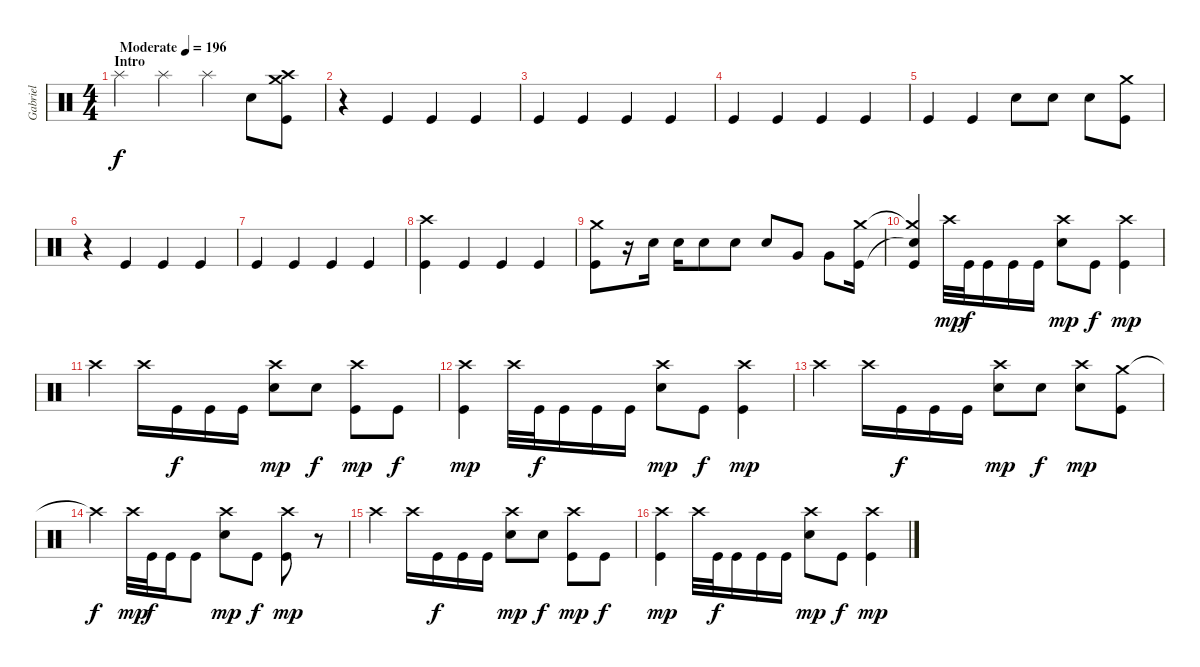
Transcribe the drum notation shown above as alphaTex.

\track ("Gabriel" "Gabriel") {instrument percussion}
\staff {score}
\articulation defaults
\ts (4 4)
\section ("" "Intro")
\tempo (196 "Moderate")
\clef neutral
\ks aminor "Splash (hit)".4{dy f} "Splash (hit)".4 "Splash (hit)".4 "Snare (hit) 2".8
("Crash medium (hit)" "Crash high (hit)" "Kick (hit)").8 |
r.4 "Kick (hit)".4 "Kick (hit)".4 "Kick (hit)".4 |
"Kick (hit)".4 "Kick (hit)".4 "Kick (hit)".4 "Kick (hit)".4 |
"Kick (hit)".4 "Kick (hit)".4 "Kick (hit)".4 "Kick (hit)".4 |
"Kick (hit)".4 "Kick (hit)".4 "Snare (hit) 2".8 "Snare (hit) 2".8 "Snare (hit) 2".8 ("Crash medium (hit)" "Kick (hit)").8 |
r.4 "Kick (hit)".4 "Kick (hit)".4 "Kick (hit)".4 |
"Kick (hit)".4 "Kick (hit)".4 "Kick (hit)".4 "Kick (hit)".4 |
("Crash high (hit)" "Kick (hit)").4 "Kick (hit)".4 "Kick (hit)".4 "Kick (hit)".4 |
("Crash medium (hit)" "Kick (hit)").8 r.16 "Snare (hit) 2".16 "Snare (hit) 2".16 "Snare (hit) 2".8 "Snare (hit) 2".8 "Snare (hit) 2".8 "Very Low Tom (hit)".8 "Very Low Tom (hit)".8 ("Crash medium (hit)" "Kick (hit)").16 |
("Crash medium (hit)"{t} "Snare (hit)"{t} "Kick (hit)").4 "Crash high (hit)".32{dy mp} "Kick (hit)".32{dy f} "Kick (hit)".16 "Kick (hit)".16 "Kick (hit)".16 ("Crash high (hit)" "Snare (hit) 2").8{dy mp} "Kick (hit)".8{dy f} ("Crash high (hit)" "Kick (hit)").4{dy mp} |
"Crash high (hit)".4 "Crash high (hit)".16 "Kick (hit)".16{dy f} "Kick (hit)".16 "Kick (hit)".16 ("Crash high (hit)" "Snare (hit) 2").8{dy mp} "Snare (hit) 2".8{dy f} ("Crash high (hit)" "Kick (hit)").8{dy mp} "Kick (hit)".8{dy f} |
("Crash high (hit)" "Kick (hit)").4{dy mp} "Crash high (hit)".32 "Kick (hit)".32{dy f} "Kick (hit)".16 "Kick (hit)".16 "Kick (hit)".16 ("Crash high (hit)" "Snare (hit) 2").8{dy mp} "Kick (hit)".8{dy f} ("Crash high (hit)" "Kick (hit)").4{dy mp} |
"Crash high (hit)".4 "Crash high (hit)".16 "Kick (hit)".16{dy f} "Kick (hit)".16 "Kick (hit)".16 ("Crash high (hit)" "Snare (hit) 2").8{dy mp} "Snare (hit) 2".8{dy f} ("Crash high (hit)" "Snare (hit) 2").8{dy mp} ("Crash medium (hit)" "Kick (hit)").8 |
"Crash high (hit)"{t}.4{dy f} "Crash high (hit)".32{dy mp} "Kick (hit)".32{dy f} "Kick (hit)".16 "Kick (hit)".8 ("Crash high (hit)" "Snare (hit) 2").8{dy mp} "Kick (hit)".8{dy f} ("Crash high (hit)" "Kick (hit)").8{dy mp} r.8 |
"Crash high (hit)".4 "Crash high (hit)".16 "Kick (hit)".16{dy f} "Kick (hit)".16 "Kick (hit)".16 ("Crash high (hit)" "Snare (hit) 2").8{dy mp} "Snare (hit) 2".8{dy f} ("Crash high (hit)" "Kick (hit)").8{dy mp} "Kick (hit)".8{dy f} |
("Crash high (hit)" "Kick (hit)").4{dy mp} "Crash high (hit)".32 "Kick (hit)".32{dy f} "Kick (hit)".16 "Kick (hit)".16 "Kick (hit)".16 ("Crash high (hit)" "Snare (hit) 2").8{dy mp} "Kick (hit)".8{dy f} ("Crash high (hit)" "Kick (hit)").4{dy mp}
